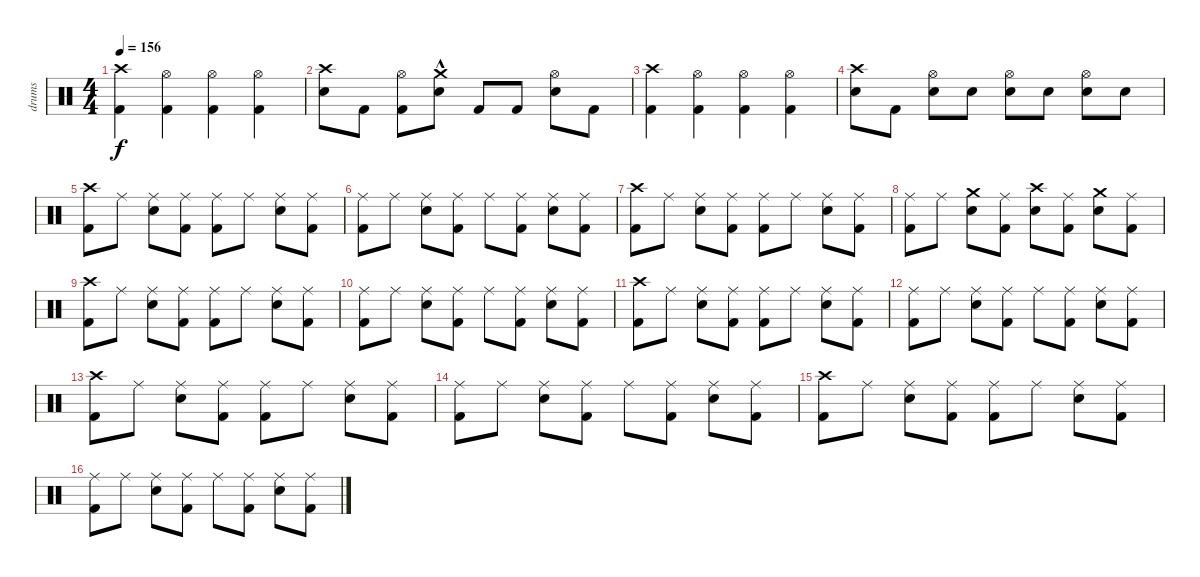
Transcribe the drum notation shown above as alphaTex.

\track ("drums" "drums") {instrument percussion}
\staff {score}
\articulation defaults
\ts (4 4)
\tempo 156
\clef neutral
\ks c
("Kick (hit) 2" "Crash high (hit)").4{dy f} ("Kick (hit) 2" "Hi-Hat (open)").4 ("Kick (hit) 2" "Hi-Hat (open)").4 ("Kick (hit) 2" "Hi-Hat (open)").4 |
("Electric Snare (hit)" "Crash high (hit)").8 "Kick (hit) 2".8 ("Kick (hit) 2" "Hi-Hat (open)").8 ("Electric Snare (hit)" "Crash medium (hit)"{hac}).8 "Kick (hit) 2".8 "Kick (hit) 2".8 ("Electric Snare (hit)" "Hi-Hat (open)").8 "Kick (hit) 2".8 |
("Kick (hit) 2" "Crash high (hit)").4 ("Kick (hit) 2" "Hi-Hat (open)").4 ("Kick (hit) 2" "Hi-Hat (open)").4 ("Kick (hit) 2" "Hi-Hat (open)").4 |
("Electric Snare (hit)" "Crash high (hit)").8 "Kick (hit) 2".8 ("Electric Snare (hit)" "Hi-Hat (open)").8 "Electric Snare (hit)".8 ("Electric Snare (hit)" "Hi-Hat (open)").8 "Electric Snare (hit)".8 ("Electric Snare (hit)" "Hi-Hat (open)").8 "Electric Snare (hit)".8 |
("Kick (hit) 2" "Crash high (hit)").8 "Ride (middle)".8 ("Electric Snare (hit)" "Ride (middle)").8 ("Ride (middle)" "Kick (hit) 2").8 ("Kick (hit) 2" "Ride (middle)").8 "Ride (middle)".8 ("Electric Snare (hit)" "Ride (middle)").8 ("Ride (middle)" "Kick (hit) 2").8 |
("Kick (hit) 2" "Ride (middle)").8 "Ride (middle)".8 ("Electric Snare (hit)" "Ride (middle)").8 ("Ride (middle)" "Kick (hit) 2").8 "Ride (middle)".8 ("Ride (middle)" "Kick (hit) 2").8 ("Electric Snare (hit)" "Ride (middle)").8 ("Ride (middle)" "Kick (hit) 2").8 |
("Kick (hit) 2" "Crash high (hit)").8 "Ride (middle)".8 ("Electric Snare (hit)" "Ride (middle)").8 ("Ride (middle)" "Kick (hit) 2").8 ("Kick (hit) 2" "Ride (middle)").8 "Ride (middle)".8 ("Electric Snare (hit)" "Ride (middle)").8 ("Ride (middle)" "Kick (hit) 2").8 |
("Kick (hit) 2" "Ride (middle)").8 "Ride (middle)".8 ("Electric Snare (hit)" "Crash medium (hit)").8 ("Ride (middle)" "Kick (hit) 2").8 ("Electric Snare (hit)" "Crash high (hit)").8 ("Ride (middle)" "Kick (hit) 2").8 ("Electric Snare (hit)" "Crash medium (hit)").8 ("Ride (middle)" "Kick (hit) 2").8 |
("Kick (hit) 2" "Crash high (hit)").8 "Ride (middle)".8 ("Electric Snare (hit)" "Ride (middle)").8 ("Ride (middle)" "Kick (hit) 2").8 ("Kick (hit) 2" "Ride (middle)").8 "Ride (middle)".8 ("Electric Snare (hit)" "Ride (middle)").8 ("Ride (middle)" "Kick (hit) 2").8 |
("Kick (hit) 2" "Ride (middle)").8 "Ride (middle)".8 ("Electric Snare (hit)" "Ride (middle)").8 ("Ride (middle)" "Kick (hit) 2").8 "Ride (middle)".8 ("Ride (middle)" "Kick (hit) 2").8 ("Electric Snare (hit)" "Ride (middle)").8 ("Ride (middle)" "Kick (hit) 2").8 |
("Kick (hit) 2" "Crash high (hit)").8 "Ride (middle)".8 ("Electric Snare (hit)" "Ride (middle)").8 ("Ride (middle)" "Kick (hit) 2").8 ("Kick (hit) 2" "Ride (middle)").8 "Ride (middle)".8 ("Electric Snare (hit)" "Ride (middle)").8 ("Ride (middle)" "Kick (hit) 2").8 |
("Kick (hit) 2" "Ride (middle)").8 "Ride (middle)".8 ("Electric Snare (hit)" "Ride (middle)").8 ("Ride (middle)" "Kick (hit) 2").8 "Ride (middle)".8 ("Ride (middle)" "Kick (hit) 2").8 ("Electric Snare (hit)" "Ride (middle)").8 ("Ride (middle)" "Kick (hit) 2").8 |
("Kick (hit) 2" "Crash high (hit)").8 "Ride (middle)".8 ("Electric Snare (hit)" "Ride (middle)").8 ("Ride (middle)" "Kick (hit) 2").8 ("Kick (hit) 2" "Ride (middle)").8 "Ride (middle)".8 ("Electric Snare (hit)" "Ride (middle)").8 ("Ride (middle)" "Kick (hit) 2").8 |
("Kick (hit) 2" "Ride (middle)").8 "Ride (middle)".8 ("Electric Snare (hit)" "Ride (middle)").8 ("Ride (middle)" "Kick (hit) 2").8 "Ride (middle)".8 ("Ride (middle)" "Kick (hit) 2").8 ("Electric Snare (hit)" "Ride (middle)").8 ("Ride (middle)" "Kick (hit) 2").8 |
("Kick (hit) 2" "Crash high (hit)").8 "Ride (middle)".8 ("Electric Snare (hit)" "Ride (middle)").8 ("Ride (middle)" "Kick (hit) 2").8 ("Kick (hit) 2" "Ride (middle)").8 "Ride (middle)".8 ("Electric Snare (hit)" "Ride (middle)").8 ("Ride (middle)" "Kick (hit) 2").8 |
("Kick (hit) 2" "Ride (middle)").8 "Ride (middle)".8 ("Electric Snare (hit)" "Ride (middle)").8 ("Ride (middle)" "Kick (hit) 2").8 "Ride (middle)".8 ("Ride (middle)" "Kick (hit) 2").8 ("Electric Snare (hit)" "Ride (middle)").8 ("Ride (middle)" "Kick (hit) 2").8
